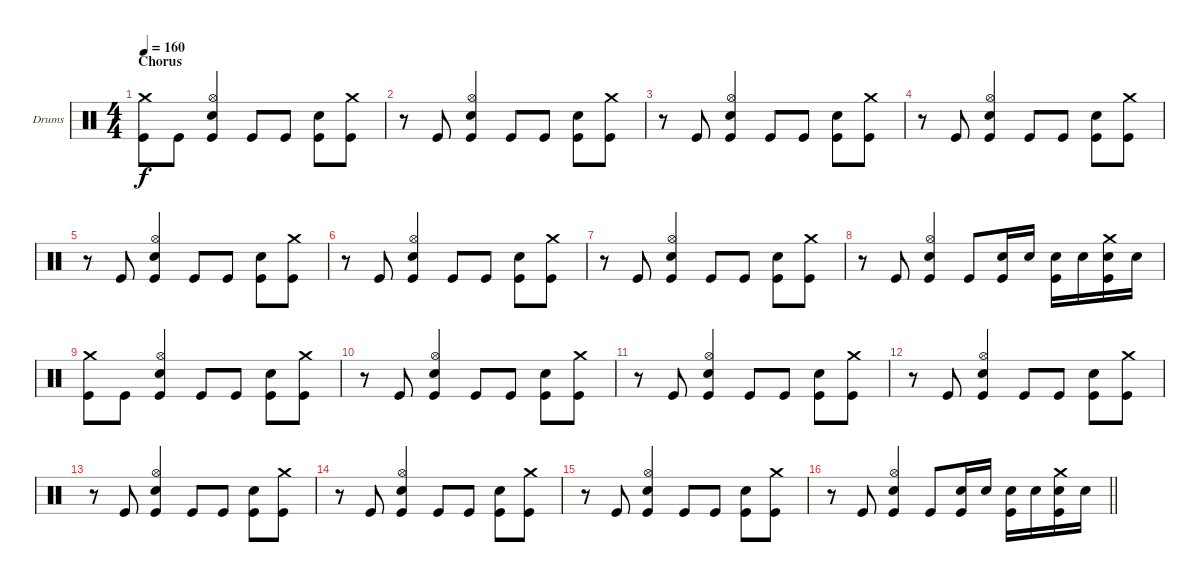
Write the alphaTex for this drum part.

\bracketExtendMode groupsimilarinstruments
\firstSystemTrackNameOrientation horizontal
\otherSystemsTrackNameOrientation horizontal
\track ("Drum" "Drums") {instrument percussion}
\staff {score}
\articulation defaults
\ts (4 4)
\section ("" "Chorus")
\tempo 160
\clef neutral
\ks c
("Crash medium (hit)" "Kick (hit)").8{dy f} "Kick (hit)".8 ("Hi-Hat (open)" "Snare (hit) 2" "Kick (hit)").4 "Kick (hit)".8 "Kick (hit)".8 ("Snare (hit) 2" "Kick (hit)").8 ("Crash medium (hit)" "Kick (hit)").8 |
r.8 "Kick (hit)".8 ("Hi-Hat (open)" "Snare (hit) 2" "Kick (hit)").4 "Kick (hit)".8 "Kick (hit)".8 ("Snare (hit) 2" "Kick (hit)").8 ("Crash medium (hit)" "Kick (hit)").8 |
r.8 "Kick (hit)".8 ("Hi-Hat (open)" "Snare (hit) 2" "Kick (hit)").4 "Kick (hit)".8 "Kick (hit)".8 ("Snare (hit) 2" "Kick (hit)").8 ("Crash medium (hit)" "Kick (hit)").8 |
r.8 "Kick (hit)".8 ("Hi-Hat (open)" "Snare (hit) 2" "Kick (hit)").4 "Kick (hit)".8 "Kick (hit)".8 ("Snare (hit) 2" "Kick (hit)").8 ("Crash medium (hit)" "Kick (hit)").8 |
r.8 "Kick (hit)".8 ("Hi-Hat (open)" "Snare (hit) 2" "Kick (hit)").4 "Kick (hit)".8 "Kick (hit)".8 ("Snare (hit) 2" "Kick (hit)").8 ("Crash medium (hit)" "Kick (hit)").8 |
r.8 "Kick (hit)".8 ("Hi-Hat (open)" "Snare (hit) 2" "Kick (hit)").4 "Kick (hit)".8 "Kick (hit)".8 ("Snare (hit) 2" "Kick (hit)").8 ("Crash medium (hit)" "Kick (hit)").8 |
r.8 "Kick (hit)".8 ("Hi-Hat (open)" "Snare (hit) 2" "Kick (hit)").4 "Kick (hit)".8 "Kick (hit)".8 ("Snare (hit) 2" "Kick (hit)").8 ("Crash medium (hit)" "Kick (hit)").8 |
r.8 "Kick (hit)".8 ("Hi-Hat (open)" "Snare (hit) 2" "Kick (hit)").4 "Kick (hit)".8 ("Snare (hit) 2" "Kick (hit)").16 "Snare (hit) 2".16 ("Snare (hit) 2" "Kick (hit)").16 "Snare (hit) 2".16 ("Crash medium (hit)" "Snare (hit) 2" "Kick (hit)").16 "Snare (hit) 2".16 |
("Crash medium (hit)" "Kick (hit)").8 "Kick (hit)".8 ("Hi-Hat (open)" "Snare (hit) 2" "Kick (hit)").4 "Kick (hit)".8 "Kick (hit)".8 ("Snare (hit) 2" "Kick (hit)").8 ("Crash medium (hit)" "Kick (hit)").8 |
r.8 "Kick (hit)".8 ("Hi-Hat (open)" "Snare (hit) 2" "Kick (hit)").4 "Kick (hit)".8 "Kick (hit)".8 ("Snare (hit) 2" "Kick (hit)").8 ("Crash medium (hit)" "Kick (hit)").8 |
r.8 "Kick (hit)".8 ("Hi-Hat (open)" "Snare (hit) 2" "Kick (hit)").4 "Kick (hit)".8 "Kick (hit)".8 ("Snare (hit) 2" "Kick (hit)").8 ("Crash medium (hit)" "Kick (hit)").8 |
r.8 "Kick (hit)".8 ("Hi-Hat (open)" "Snare (hit) 2" "Kick (hit)").4 "Kick (hit)".8 "Kick (hit)".8 ("Snare (hit) 2" "Kick (hit)").8 ("Crash medium (hit)" "Kick (hit)").8 |
r.8 "Kick (hit)".8 ("Hi-Hat (open)" "Snare (hit) 2" "Kick (hit)").4 "Kick (hit)".8 "Kick (hit)".8 ("Snare (hit) 2" "Kick (hit)").8 ("Crash medium (hit)" "Kick (hit)").8 |
r.8 "Kick (hit)".8 ("Hi-Hat (open)" "Snare (hit) 2" "Kick (hit)").4 "Kick (hit)".8 "Kick (hit)".8 ("Snare (hit) 2" "Kick (hit)").8 ("Crash medium (hit)" "Kick (hit)").8 |
r.8 "Kick (hit)".8 ("Hi-Hat (open)" "Snare (hit) 2" "Kick (hit)").4 "Kick (hit)".8 "Kick (hit)".8 ("Snare (hit) 2" "Kick (hit)").8 ("Crash medium (hit)" "Kick (hit)").8 |
\barLineRight lightlight
r.8 "Kick (hit)".8 ("Hi-Hat (open)" "Snare (hit) 2" "Kick (hit)").4 "Kick (hit)".8 ("Snare (hit) 2" "Kick (hit)").16 "Snare (hit) 2".16 ("Snare (hit) 2" "Kick (hit)").16 "Snare (hit) 2".16 ("Crash medium (hit)" "Snare (hit) 2" "Kick (hit)").16 "Snare (hit) 2".16
